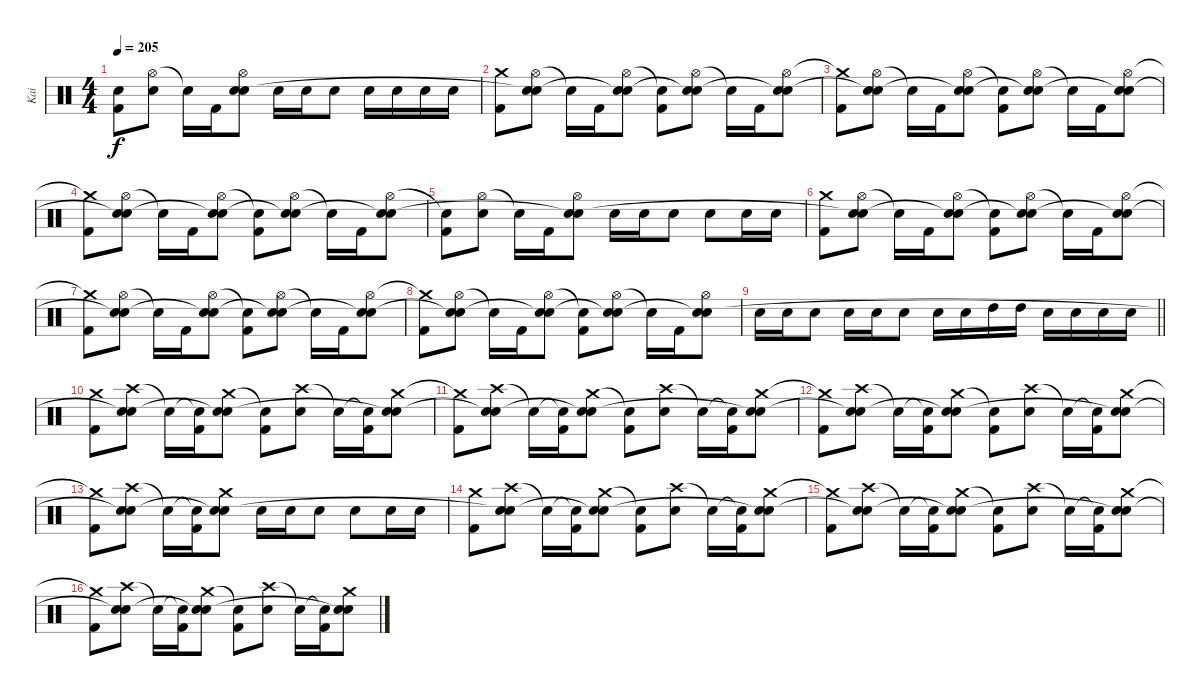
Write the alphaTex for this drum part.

\track ("Kai" "Kai") {instrument percussion}
\staff {score}
\articulation defaults
\ts (4 4)
\tempo 205
\clef neutral
\ks c
("Snare (hit)"{t} "Kick (hit) 2").8{dy f} ("Hi-Hat (open)" "Snare (hit) 2").8 "Snare (hit)"{t}.16 "Kick (hit) 2".16 ("Hi-Hat (open)" "Snare (hit) 2" "Snare (hit)"{t}).8 "Snare (hit) 2".16 "Snare (hit) 2".16 "Snare (hit) 2".8 "Snare (hit) 2".16 "Snare (hit) 2".16 "Snare (hit) 2".16 "Snare (hit) 2".16 |
("Crash medium (hit)" "Kick (hit) 2").8 ("Hi-Hat (open)" "Snare (hit) 2" "Snare (hit)"{t}).8 "Snare (hit)"{t}.16 "Kick (hit) 2".16 ("Hi-Hat (open)" "Snare (hit) 2" "Snare (hit)"{t}).8 ("Snare (hit)"{t} "Kick (hit) 2").8 ("Hi-Hat (open)" "Snare (hit) 2" "Snare (hit)"{t}).8 "Snare (hit)"{t}.16 "Kick (hit) 2".16 ("Hi-Hat (open)" "Snare (hit) 2" "Snare (hit)"{t}).8 |
("Crash medium (hit)"{t} "Kick (hit) 2").8 ("Hi-Hat (open)" "Snare (hit) 2" "Snare (hit)"{t}).8 "Snare (hit)"{t}.16 "Kick (hit) 2".16 ("Hi-Hat (open)" "Snare (hit) 2" "Snare (hit)"{t}).8 ("Snare (hit)"{t} "Kick (hit) 2").8 ("Hi-Hat (open)" "Snare (hit) 2" "Snare (hit)"{t}).8 "Snare (hit)"{t}.16 "Kick (hit) 2".16 ("Hi-Hat (open)" "Snare (hit) 2" "Snare (hit)"{t}).8 |
("Crash medium (hit)"{t} "Kick (hit) 2").8 ("Hi-Hat (open)" "Snare (hit) 2" "Snare (hit)"{t}).8 "Snare (hit)"{t}.16 "Kick (hit) 2".16 ("Hi-Hat (open)" "Snare (hit) 2" "Snare (hit)"{t}).8 ("Snare (hit)"{t} "Kick (hit) 2").8 ("Hi-Hat (open)" "Snare (hit) 2" "Snare (hit)"{t}).8 "Snare (hit)"{t}.16 "Kick (hit) 2".16 ("Hi-Hat (open)" "Snare (hit) 2" "Snare (hit)"{t}).8 |
("Snare (hit)"{t} "Kick (hit) 2").8 ("Hi-Hat (open)" "Snare (hit) 2").8 "Snare (hit)"{t}.16 "Kick (hit) 2".16 ("Hi-Hat (open)" "Snare (hit) 2" "Snare (hit)"{t}).8 "Snare (hit) 2".16 "Snare (hit) 2".16 "Snare (hit) 2".8 "Snare (hit) 2".8 "Snare (hit) 2".16 "Snare (hit) 2".16 |
("Crash medium (hit)" "Kick (hit) 2").8 ("Hi-Hat (open)" "Snare (hit) 2" "Snare (hit)"{t}).8 "Snare (hit)"{t}.16 "Kick (hit) 2".16 ("Hi-Hat (open)" "Snare (hit) 2" "Snare (hit)"{t}).8 ("Snare (hit)"{t} "Kick (hit) 2").8 ("Hi-Hat (open)" "Snare (hit) 2" "Snare (hit)"{t}).8 "Snare (hit)"{t}.16 "Kick (hit) 2".16 ("Hi-Hat (open)" "Snare (hit) 2" "Snare (hit)"{t}).8 |
("Crash medium (hit)"{t} "Kick (hit) 2").8 ("Hi-Hat (open)" "Snare (hit) 2" "Snare (hit)"{t}).8 "Snare (hit)"{t}.16 "Kick (hit) 2".16 ("Hi-Hat (open)" "Snare (hit) 2" "Snare (hit)"{t}).8 ("Snare (hit)"{t} "Kick (hit) 2").8 ("Hi-Hat (open)" "Snare (hit) 2" "Snare (hit)"{t}).8 "Snare (hit)"{t}.16 "Kick (hit) 2".16 ("Hi-Hat (open)" "Snare (hit) 2" "Snare (hit)"{t}).8 |
("Crash medium (hit)"{t} "Kick (hit) 2").8 ("Hi-Hat (open)" "Snare (hit) 2" "Snare (hit)"{t}).8 "Snare (hit)"{t}.16 "Kick (hit) 2".16 ("Hi-Hat (open)" "Snare (hit) 2" "Snare (hit)"{t}).8 ("Snare (hit)"{t} "Kick (hit) 2").8 ("Hi-Hat (open)" "Snare (hit) 2" "Snare (hit)"{t}).8 "Snare (hit)"{t}.16 "Kick (hit) 2".16 ("Hi-Hat (open)" "Snare (hit) 2" "Snare (hit)"{t}).8 |
\barLineRight lightlight "Snare (hit) 2".16 "Snare (hit) 2".16 "Snare (hit) 2".8 "Snare (hit) 2".16 "Snare (hit) 2".16 "Snare (hit) 2".8 "Snare (hit) 2".16 "Snare (hit) 2".16 "High Tom (hit)".16 "High Tom (hit)".16 "Snare (hit) 2".16 "Snare (hit) 2".16 "Snare (hit) 2".16 "Snare (hit) 2".16
|
("Crash medium (hit)" "Kick (hit) 2").8 ("Crash high (hit)" "Snare (hit) 2" "Snare (hit)"{t}).8 "Snare (hit)"{t}.16 ("Snare (hit)"{t} "Kick (hit) 2").16 ("Crash medium (hit)" "Snare (hit) 2" "Snare (hit)"{t}).8 ("Snare (hit)"{t} "Kick (hit) 2").8 ("Crash high (hit)" "Snare (hit) 2").8 "Snare (hit)"{t}.16 ("Snare (hit)"{t} "Kick (hit) 2").16 ("Crash medium (hit)" "Snare (hit) 2" "Snare (hit)"{t}).8 |
("Crash medium (hit)"{t} "Kick (hit) 2").8 ("Crash high (hit)" "Snare (hit) 2" "Snare (hit)"{t}).8 "Snare (hit)"{t}.16 ("Snare (hit)"{t} "Kick (hit) 2").16 ("Crash medium (hit)" "Snare (hit) 2" "Snare (hit)"{t}).8 ("Snare (hit)"{t} "Kick (hit) 2").8 ("Crash high (hit)" "Snare (hit) 2").8 "Snare (hit)"{t}.16 ("Snare (hit)"{t} "Kick (hit) 2").16 ("Crash medium (hit)" "Snare (hit) 2" "Snare (hit)"{t}).8 |
("Crash medium (hit)"{t} "Kick (hit) 2").8 ("Crash high (hit)" "Snare (hit) 2" "Snare (hit)"{t}).8 "Snare (hit)"{t}.16 ("Snare (hit)"{t} "Kick (hit) 2").16 ("Crash medium (hit)" "Snare (hit) 2" "Snare (hit)"{t}).8 ("Snare (hit)"{t} "Kick (hit) 2").8 ("Crash high (hit)" "Snare (hit) 2").8 "Snare (hit)"{t}.16 ("Snare (hit)"{t} "Kick (hit) 2").16 ("Crash medium (hit)" "Snare (hit) 2" "Snare (hit)"{t}).8 |
("Crash medium (hit)"{t} "Kick (hit) 2").8 ("Crash high (hit)" "Snare (hit) 2" "Snare (hit)"{t}).8 "Snare (hit)"{t}.16 ("Snare (hit)"{t} "Kick (hit) 2").16 ("Crash medium (hit)" "Snare (hit) 2" "Snare (hit)"{t}).8 "Snare (hit) 2".16 "Snare (hit) 2".16 "Snare (hit) 2".8 "Snare (hit) 2".8 "Snare (hit) 2".16 "Snare (hit) 2".16 |
("Crash medium (hit)" "Kick (hit) 2").8 ("Crash high (hit)" "Snare (hit) 2" "Snare (hit)"{t}).8 "Snare (hit)"{t}.16 ("Snare (hit)"{t} "Kick (hit) 2").16 ("Crash medium (hit)" "Snare (hit) 2" "Snare (hit)"{t}).8 ("Snare (hit)"{t} "Kick (hit) 2").8 ("Crash high (hit)" "Snare (hit) 2").8 "Snare (hit)"{t}.16 ("Snare (hit)"{t} "Kick (hit) 2").16 ("Crash medium (hit)" "Snare (hit) 2" "Snare (hit)"{t}).8 |
("Crash medium (hit)"{t} "Kick (hit) 2").8 ("Crash high (hit)" "Snare (hit) 2" "Snare (hit)"{t}).8 "Snare (hit)"{t}.16 ("Snare (hit)"{t} "Kick (hit) 2").16 ("Crash medium (hit)" "Snare (hit) 2" "Snare (hit)"{t}).8 ("Snare (hit)"{t} "Kick (hit) 2").8 ("Crash high (hit)" "Snare (hit) 2").8 "Snare (hit)"{t}.16 ("Snare (hit)"{t} "Kick (hit) 2").16 ("Crash medium (hit)" "Snare (hit) 2" "Snare (hit)"{t}).8 |
("Crash medium (hit)"{t} "Kick (hit) 2").8 ("Crash high (hit)" "Snare (hit) 2" "Snare (hit)"{t}).8 "Snare (hit)"{t}.16 ("Snare (hit)"{t} "Kick (hit) 2").16 ("Crash medium (hit)" "Snare (hit) 2" "Snare (hit)"{t}).8 ("Snare (hit)"{t} "Kick (hit) 2").8 ("Crash high (hit)" "Snare (hit) 2").8 "Snare (hit)"{t}.16 ("Snare (hit)"{t} "Kick (hit) 2").16 ("Crash medium (hit)" "Snare (hit) 2" "Snare (hit)"{t}).8
